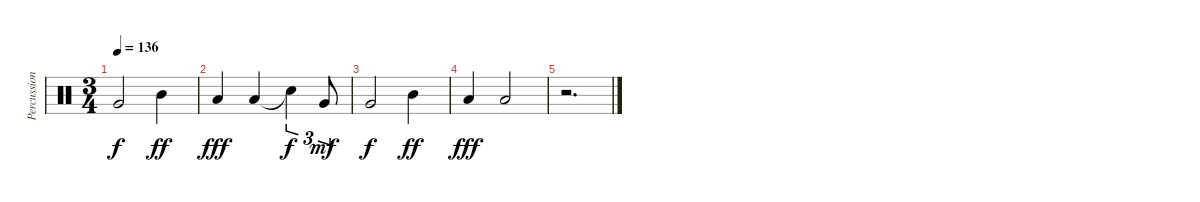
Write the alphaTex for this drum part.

\track ("Percussions / Stephen Van Haestregt" "Percussion") {instrument percussion}
\staff {score}
\articulation defaults
\ts (3 4)
\tempo 136
\clef neutral
\ks c "Very Low Tom (hit)".2{dy f} "Mid Tom (hit)".4{dy ff}
|
"Low Tom (hit)".4{dy fff} "Low Tom (hit)".4 "Snare (hit)"{t}.4{tu (3 2) dy f} "Very Low Tom (hit)".8{tu (3 2) dy mf} |
"Very Low Tom (hit)".2{dy f} "Mid Tom (hit)".4{dy ff} |
"Low Tom (hit)".4{dy fff} "Low Tom (hit)".2 |
r.2{d}
